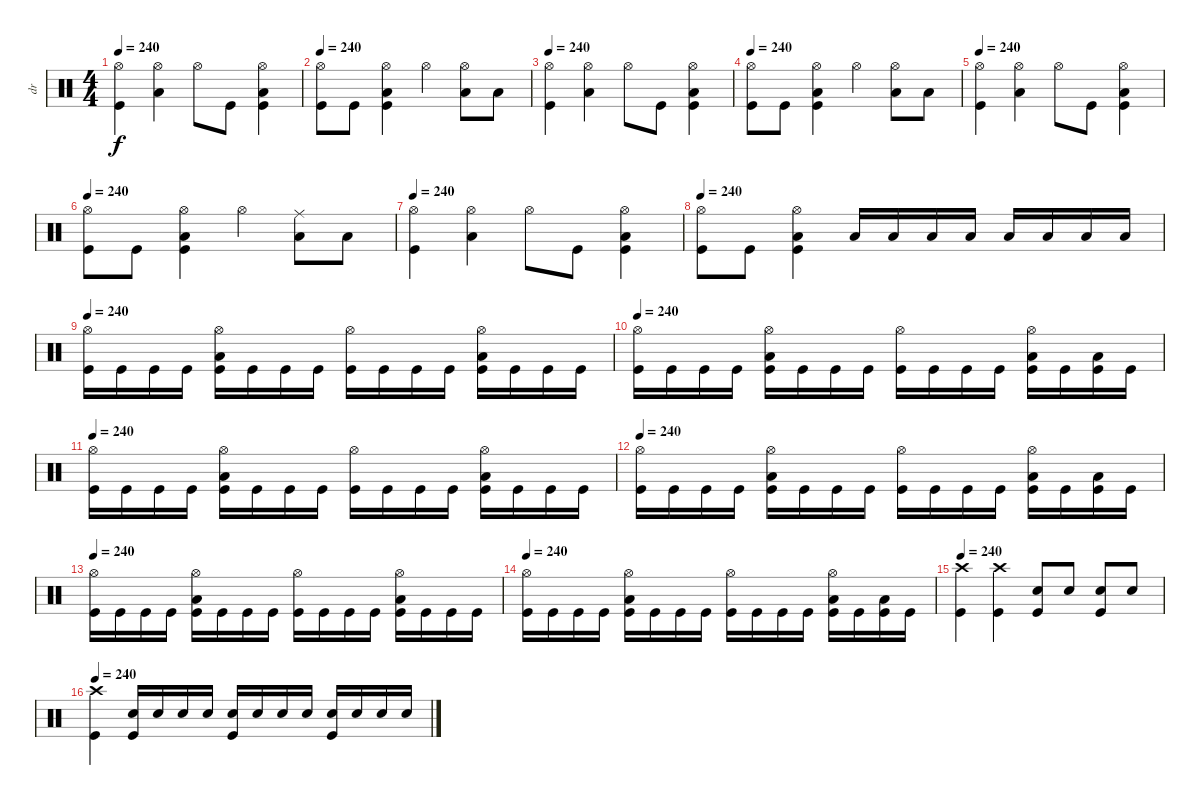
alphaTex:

\track ("dr" "dr") {instrument percussion}
\staff {score}
\articulation defaults
\ts (4 4)
\tempo 240
\clef neutral
\ks c
("Hi-Hat (open)" "Kick (hit)").4{dy f} ("Hi-Hat (open)" "Low Floor Tom (hit)").4 "Hi-Hat (open)".8 "Kick (hit)".8 ("Hi-Hat (open)" "Low Floor Tom (hit)" "Kick (hit)").4 |
\tempo 240
("Hi-Hat (open)" "Kick (hit)").8 "Kick (hit)".8 ("Hi-Hat (open)" "Low Floor Tom (hit)" "Kick (hit)").4 "Hi-Hat (open)".4 ("Hi-Hat (open)" "Low Floor Tom (hit)").8 "Low Floor Tom (hit)".8 |
\tempo 240
("Hi-Hat (open)" "Kick (hit)").4 ("Hi-Hat (open)" "Low Floor Tom (hit)").4 "Hi-Hat (open)".8 "Kick (hit)".8 ("Hi-Hat (open)" "Low Floor Tom (hit)" "Kick (hit)").4 |
\tempo 240
("Hi-Hat (open)" "Kick (hit)").8 "Kick (hit)".8 ("Hi-Hat (open)" "Low Floor Tom (hit)" "Kick (hit)").4 "Hi-Hat (open)".4 ("Hi-Hat (open)" "Low Floor Tom (hit)").8 "Low Floor Tom (hit)".8 |
\tempo 240
("Hi-Hat (open)" "Kick (hit)").4 ("Hi-Hat (open)" "Low Floor Tom (hit)").4 "Hi-Hat (open)".8 "Kick (hit)".8 ("Hi-Hat (open)" "Low Floor Tom (hit)" "Kick (hit)").4 |
\tempo 240
("Hi-Hat (open)" "Kick (hit)").8 "Kick (hit)".8 ("Hi-Hat (open)" "Low Floor Tom (hit)" "Kick (hit)").4 "Hi-Hat (open)".4 ("Ride (middle)" "Low Floor Tom (hit)").8 "Low Floor Tom (hit)".8 |
\tempo 240
("Hi-Hat (open)" "Kick (hit)").4 ("Hi-Hat (open)" "Low Floor Tom (hit)").4 "Hi-Hat (open)".8 "Kick (hit)".8 ("Hi-Hat (open)" "Low Floor Tom (hit)" "Kick (hit)").4 |
\tempo 240
("Hi-Hat (open)" "Kick (hit)").8 "Kick (hit)".8 ("Hi-Hat (open)" "Low Floor Tom (hit)" "Kick (hit)").4 "Low Floor Tom (hit)".16 "Low Floor Tom (hit)".16 "Low Floor Tom (hit)".16 "Low Floor Tom (hit)".16 "Low Floor Tom (hit)".16 "Low Floor Tom (hit)".16 "Low Floor Tom (hit)".16 "Low Floor Tom (hit)".16 |
\tempo 240
("Hi-Hat (open)" "Kick (hit)").16 "Kick (hit)".16 "Kick (hit)".16 "Kick (hit)".16 ("Hi-Hat (open)" "Low Floor Tom (hit)" "Kick (hit)").16 "Kick (hit)".16 "Kick (hit)".16 "Kick (hit)".16 ("Hi-Hat (open)" "Kick (hit)").16 "Kick (hit)".16 "Kick (hit)".16 "Kick (hit)".16 ("Hi-Hat (open)" "Low Floor Tom (hit)" "Kick (hit)").16 "Kick (hit)".16 "Kick (hit)".16 "Kick (hit)".16 |
\tempo 240
("Hi-Hat (open)" "Kick (hit)").16 "Kick (hit)".16 "Kick (hit)".16 "Kick (hit)".16 ("Hi-Hat (open)" "Low Floor Tom (hit)" "Kick (hit)").16 "Kick (hit)".16 "Kick (hit)".16 "Kick (hit)".16 ("Hi-Hat (open)" "Kick (hit)").16 "Kick (hit)".16 "Kick (hit)".16 "Kick (hit)".16 ("Hi-Hat (open)" "Low Floor Tom (hit)" "Kick (hit)").16 "Kick (hit)".16 ("Low Floor Tom (hit)" "Kick (hit)").16 "Kick (hit)".16 |
\tempo 240
("Hi-Hat (open)" "Kick (hit)").16 "Kick (hit)".16 "Kick (hit)".16 "Kick (hit)".16 ("Hi-Hat (open)" "Low Floor Tom (hit)" "Kick (hit)").16 "Kick (hit)".16 "Kick (hit)".16 "Kick (hit)".16 ("Hi-Hat (open)" "Kick (hit)").16 "Kick (hit)".16 "Kick (hit)".16 "Kick (hit)".16 ("Hi-Hat (open)" "Low Floor Tom (hit)" "Kick (hit)").16 "Kick (hit)".16 "Kick (hit)".16 "Kick (hit)".16 |
\tempo 240
("Hi-Hat (open)" "Kick (hit)").16 "Kick (hit)".16 "Kick (hit)".16 "Kick (hit)".16 ("Hi-Hat (open)" "Low Floor Tom (hit)" "Kick (hit)").16 "Kick (hit)".16 "Kick (hit)".16 "Kick (hit)".16 ("Hi-Hat (open)" "Kick (hit)").16 "Kick (hit)".16 "Kick (hit)".16 "Kick (hit)".16 ("Hi-Hat (open)" "Low Floor Tom (hit)" "Kick (hit)").16 "Kick (hit)".16 ("Low Floor Tom (hit)" "Kick (hit)").16 "Kick (hit)".16 |
\tempo 240
("Hi-Hat (open)" "Kick (hit)").16 "Kick (hit)".16 "Kick (hit)".16 "Kick (hit)".16 ("Hi-Hat (open)" "Low Floor Tom (hit)" "Kick (hit)").16 "Kick (hit)".16 "Kick (hit)".16 "Kick (hit)".16 ("Hi-Hat (open)" "Kick (hit)").16 "Kick (hit)".16 "Kick (hit)".16 "Kick (hit)".16 ("Hi-Hat (open)" "Low Floor Tom (hit)" "Kick (hit)").16 "Kick (hit)".16 "Kick (hit)".16 "Kick (hit)".16 |
\tempo 240
("Hi-Hat (open)" "Kick (hit)").16 "Kick (hit)".16 "Kick (hit)".16 "Kick (hit)".16 ("Hi-Hat (open)" "Low Floor Tom (hit)" "Kick (hit)").16 "Kick (hit)".16 "Kick (hit)".16 "Kick (hit)".16 ("Hi-Hat (open)" "Kick (hit)").16 "Kick (hit)".16 "Kick (hit)".16 "Kick (hit)".16 ("Hi-Hat (open)" "Low Floor Tom (hit)" "Kick (hit)").16 "Kick (hit)".16 ("Low Floor Tom (hit)" "Kick (hit)").16 "Kick (hit)".16 |
\tempo 240
("Crash high (hit)" "Kick (hit)").4 ("Crash high (hit)" "Kick (hit)").4 ("Electric Snare (hit)" "Kick (hit)").8 "Electric Snare (hit)".8 ("Electric Snare (hit)" "Kick (hit)").8 "Electric Snare (hit)".8 |
\tempo 240
("Crash high (hit)" "Kick (hit)").4 ("Electric Snare (hit)" "Kick (hit)").16 "Electric Snare (hit)".16 "Electric Snare (hit)".16 "Electric Snare (hit)".16 ("Electric Snare (hit)" "Kick (hit)").16 "Electric Snare (hit)".16 "Electric Snare (hit)".16 "Electric Snare (hit)".16 ("Snare (hit) 2" "Kick (hit)").16 "Snare (hit) 2".16 "Snare (hit) 2".16 "Snare (hit) 2".16
